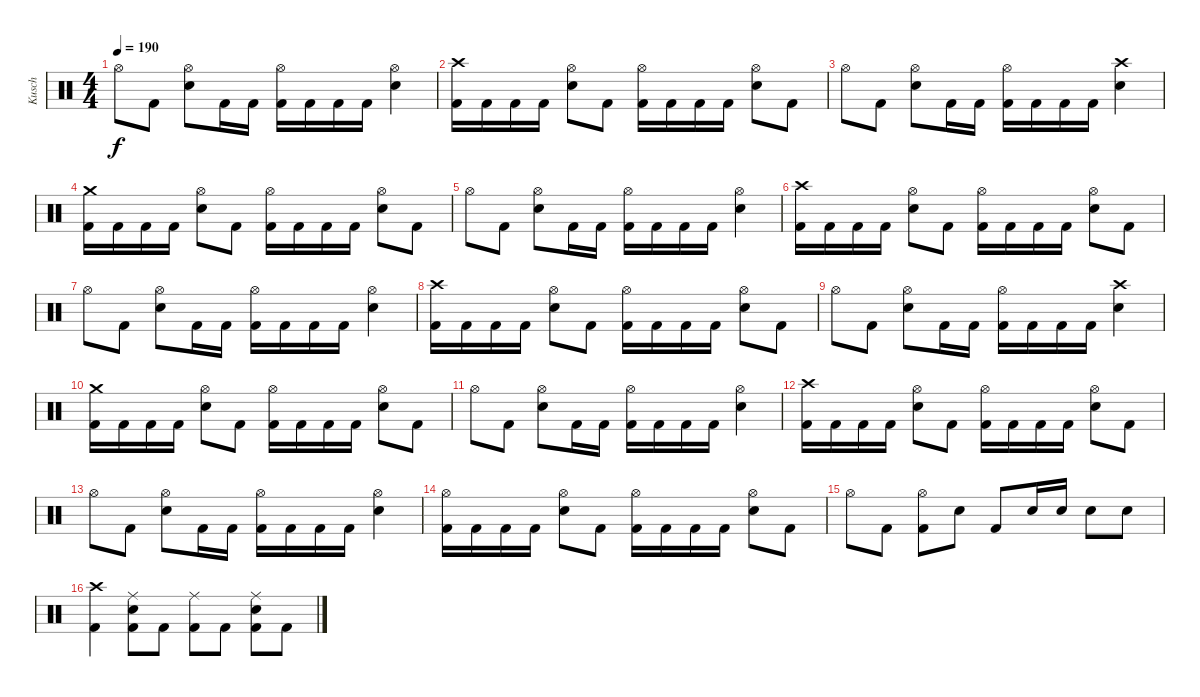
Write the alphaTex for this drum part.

\track ("Kusch" "Kusch") {instrument percussion}
\staff {score}
\articulation defaults
\ts (4 4)
\tempo 190
\clef neutral
\ks c "Hi-Hat (open)".8{dy f} "Kick (hit) 2".8
("Hi-Hat (open)" "Electric Snare (hit)").8 "Kick (hit) 2".16 "Kick (hit) 2".16 ("Hi-Hat (open)" "Kick (hit) 2").16 "Kick (hit) 2".16 "Kick (hit) 2".16 "Kick (hit) 2".16 ("Hi-Hat (open)" "Electric Snare (hit)").4 |
("Crash high (hit)" "Kick (hit) 2").16 "Kick (hit) 2".16 "Kick (hit) 2".16 "Kick (hit) 2".16 ("Hi-Hat (open)" "Electric Snare (hit)").8 "Kick (hit) 2".8 ("Hi-Hat (open)" "Kick (hit) 2").16 "Kick (hit) 2".16 "Kick (hit) 2".16 "Kick (hit) 2".16 ("Hi-Hat (open)" "Electric Snare (hit)").8 "Kick (hit) 2".8 |
"Hi-Hat (open)".8 "Kick (hit) 2".8 ("Hi-Hat (open)" "Electric Snare (hit)").8 "Kick (hit) 2".16 "Kick (hit) 2".16 ("Hi-Hat (open)" "Kick (hit) 2").16 "Kick (hit) 2".16 "Kick (hit) 2".16 "Kick (hit) 2".16 ("Crash high (hit)" "Electric Snare (hit)").4 |
("Crash medium (hit)" "Kick (hit) 2").16 "Kick (hit) 2".16 "Kick (hit) 2".16 "Kick (hit) 2".16 ("Hi-Hat (open)" "Electric Snare (hit)").8 "Kick (hit) 2".8 ("Hi-Hat (open)" "Kick (hit) 2").16 "Kick (hit) 2".16 "Kick (hit) 2".16 "Kick (hit) 2".16 ("Hi-Hat (open)" "Electric Snare (hit)").8 "Kick (hit) 2".8 |
"Hi-Hat (open)".8 "Kick (hit) 2".8 ("Hi-Hat (open)" "Electric Snare (hit)").8 "Kick (hit) 2".16 "Kick (hit) 2".16 ("Hi-Hat (open)" "Kick (hit) 2").16 "Kick (hit) 2".16 "Kick (hit) 2".16 "Kick (hit) 2".16 ("Hi-Hat (open)" "Electric Snare (hit)").4 |
("Crash high (hit)" "Kick (hit) 2").16 "Kick (hit) 2".16 "Kick (hit) 2".16 "Kick (hit) 2".16 ("Hi-Hat (open)" "Electric Snare (hit)").8 "Kick (hit) 2".8 ("Hi-Hat (open)" "Kick (hit) 2").16 "Kick (hit) 2".16 "Kick (hit) 2".16 "Kick (hit) 2".16 ("Hi-Hat (open)" "Electric Snare (hit)").8 "Kick (hit) 2".8 |
"Hi-Hat (open)".8 "Kick (hit) 2".8 ("Hi-Hat (open)" "Electric Snare (hit)").8 "Kick (hit) 2".16 "Kick (hit) 2".16 ("Hi-Hat (open)" "Kick (hit) 2").16 "Kick (hit) 2".16 "Kick (hit) 2".16 "Kick (hit) 2".16 ("Hi-Hat (open)" "Electric Snare (hit)").4 |
("Crash high (hit)" "Kick (hit) 2").16 "Kick (hit) 2".16 "Kick (hit) 2".16 "Kick (hit) 2".16 ("Hi-Hat (open)" "Electric Snare (hit)").8 "Kick (hit) 2".8 ("Hi-Hat (open)" "Kick (hit) 2").16 "Kick (hit) 2".16 "Kick (hit) 2".16 "Kick (hit) 2".16 ("Hi-Hat (open)" "Electric Snare (hit)").8 "Kick (hit) 2".8 |
"Hi-Hat (open)".8 "Kick (hit) 2".8 ("Hi-Hat (open)" "Electric Snare (hit)").8 "Kick (hit) 2".16 "Kick (hit) 2".16 ("Hi-Hat (open)" "Kick (hit) 2").16 "Kick (hit) 2".16 "Kick (hit) 2".16 "Kick (hit) 2".16 ("Crash high (hit)" "Electric Snare (hit)").4 |
("Crash medium (hit)" "Kick (hit) 2").16 "Kick (hit) 2".16 "Kick (hit) 2".16 "Kick (hit) 2".16 ("Hi-Hat (open)" "Electric Snare (hit)").8 "Kick (hit) 2".8 ("Hi-Hat (open)" "Kick (hit) 2").16 "Kick (hit) 2".16 "Kick (hit) 2".16 "Kick (hit) 2".16 ("Hi-Hat (open)" "Electric Snare (hit)").8 "Kick (hit) 2".8 |
"Hi-Hat (open)".8 "Kick (hit) 2".8 ("Hi-Hat (open)" "Electric Snare (hit)").8 "Kick (hit) 2".16 "Kick (hit) 2".16 ("Hi-Hat (open)" "Kick (hit) 2").16 "Kick (hit) 2".16 "Kick (hit) 2".16 "Kick (hit) 2".16 ("Hi-Hat (open)" "Electric Snare (hit)").4 |
("Crash high (hit)" "Kick (hit) 2").16 "Kick (hit) 2".16 "Kick (hit) 2".16 "Kick (hit) 2".16 ("Hi-Hat (open)" "Electric Snare (hit)").8 "Kick (hit) 2".8 ("Hi-Hat (open)" "Kick (hit) 2").16 "Kick (hit) 2".16 "Kick (hit) 2".16 "Kick (hit) 2".16 ("Hi-Hat (open)" "Electric Snare (hit)").8 "Kick (hit) 2".8 |
"Hi-Hat (open)".8 "Kick (hit) 2".8 ("Hi-Hat (open)" "Electric Snare (hit)").8 "Kick (hit) 2".16 "Kick (hit) 2".16 ("Hi-Hat (open)" "Kick (hit) 2").16 "Kick (hit) 2".16 "Kick (hit) 2".16 "Kick (hit) 2".16 ("Hi-Hat (open)" "Electric Snare (hit)").4 |
("Hi-Hat (open)" "Kick (hit) 2").16 "Kick (hit) 2".16 "Kick (hit) 2".16 "Kick (hit) 2".16 ("Hi-Hat (open)" "Electric Snare (hit)").8 "Kick (hit) 2".8 ("Hi-Hat (open)" "Kick (hit) 2").16 "Kick (hit) 2".16 "Kick (hit) 2".16 "Kick (hit) 2".16 ("Hi-Hat (open)" "Electric Snare (hit)").8 "Kick (hit) 2".8 |
"Hi-Hat (open)".8 "Kick (hit) 2".8 ("Hi-Hat (open)" "Kick (hit) 2").8 "Electric Snare (hit)".8 "Kick (hit) 2".8 "Electric Snare (hit)".16 "Electric Snare (hit)".16 "Electric Snare (hit)".8 "Electric Snare (hit)".8 |
("Crash high (hit)" "Kick (hit) 2").4 ("Ride (middle)" "Electric Snare (hit)" "Kick (hit) 2").8 "Kick (hit) 2".8 ("Ride (middle)" "Kick (hit) 2").8 "Kick (hit) 2".8 ("Ride (middle)" "Electric Snare (hit)" "Kick (hit) 2").8 "Kick (hit) 2".8
